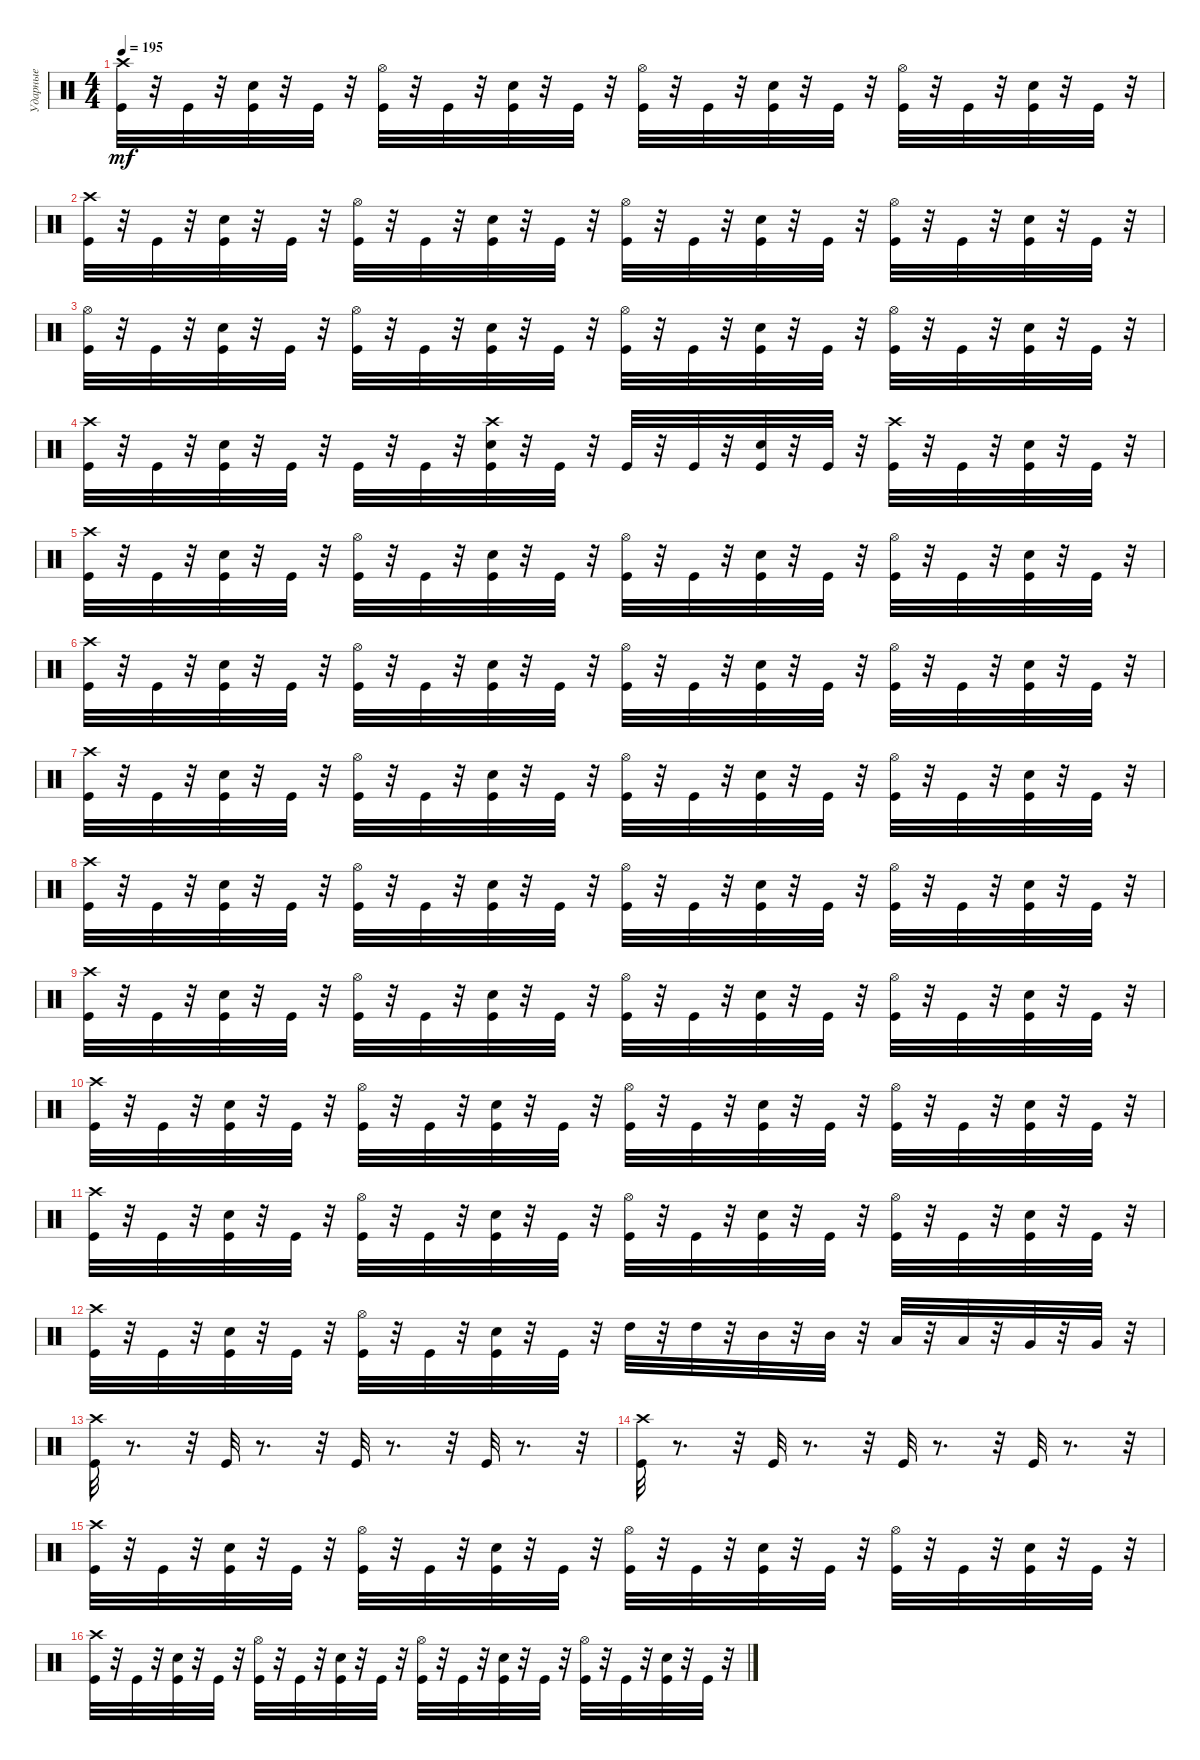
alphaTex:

\track ("Ударные" "Ударные") {instrument percussion}
\staff {score}
\articulation defaults
\ts (4 4)
\tempo 195
\clef neutral
\ks c
("Crash high (hit)" "Kick (hit)").32{dy mf} r.32 "Kick (hit)".32 r.32 ("Electric Snare (hit)" "Kick (hit)").32 r.32 "Kick (hit)".32 r.32 ("Kick (hit)" "Hi-Hat (open)").32 r.32 "Kick (hit)".32 r.32 ("Electric Snare (hit)" "Kick (hit)").32 r.32 "Kick (hit)".32 r.32 ("Hi-Hat (open)" "Kick (hit)").32 r.32 "Kick (hit)".32 r.32 ("Electric Snare (hit)" "Kick (hit)").32 r.32 "Kick (hit)".32 r.32 ("Hi-Hat (open)" "Kick (hit)").32 r.32 "Kick (hit)".32 r.32 ("Electric Snare (hit)" "Kick (hit)").32 r.32 "Kick (hit)".32 r.32 |
("Crash high (hit)" "Kick (hit)").32 r.32 "Kick (hit)".32 r.32 ("Electric Snare (hit)" "Kick (hit)").32 r.32 "Kick (hit)".32 r.32 ("Kick (hit)" "Hi-Hat (open)").32 r.32 "Kick (hit)".32 r.32 ("Electric Snare (hit)" "Kick (hit)").32 r.32 "Kick (hit)".32 r.32 ("Hi-Hat (open)" "Kick (hit)").32 r.32 "Kick (hit)".32 r.32 ("Electric Snare (hit)" "Kick (hit)").32 r.32 "Kick (hit)".32 r.32 ("Hi-Hat (open)" "Kick (hit)").32 r.32 "Kick (hit)".32 r.32 ("Electric Snare (hit)" "Kick (hit)").32 r.32 "Kick (hit)".32 r.32 |
("Hi-Hat (open)" "Kick (hit)").32 r.32 "Kick (hit)".32 r.32 ("Electric Snare (hit)" "Kick (hit)").32 r.32 "Kick (hit)".32 r.32 ("Kick (hit)" "Hi-Hat (open)").32 r.32 "Kick (hit)".32 r.32 ("Electric Snare (hit)" "Kick (hit)").32 r.32 "Kick (hit)".32 r.32 ("Hi-Hat (open)" "Kick (hit)").32 r.32 "Kick (hit)".32 r.32 ("Electric Snare (hit)" "Kick (hit)").32 r.32 "Kick (hit)".32 r.32 ("Hi-Hat (open)" "Kick (hit)").32 r.32 "Kick (hit)".32 r.32 ("Electric Snare (hit)" "Kick (hit)").32 r.32 "Kick (hit)".32 r.32 |
("Crash high (hit)" "Kick (hit)").32 r.32 "Kick (hit)".32 r.32 ("Kick (hit)" "Electric Snare (hit)").32 r.32 "Kick (hit)".32 r.32 "Kick (hit)".32 r.32 "Kick (hit)".32 r.32 ("Crash high (hit)" "Electric Snare (hit)" "Kick (hit)").32 r.32 "Kick (hit)".32 r.32 "Kick (hit)".32 r.32 "Kick (hit)".32 r.32 ("Electric Snare (hit)" "Kick (hit)").32 r.32 "Kick (hit)".32 r.32 ("Crash high (hit)" "Kick (hit)").32 r.32 "Kick (hit)".32 r.32 ("Electric Snare (hit)" "Kick (hit)").32 r.32 "Kick (hit)".32 r.32 |
("Crash high (hit)" "Kick (hit)").32 r.32 "Kick (hit)".32 r.32 ("Electric Snare (hit)" "Kick (hit)").32 r.32 "Kick (hit)".32 r.32 ("Kick (hit)" "Hi-Hat (open)").32 r.32 "Kick (hit)".32 r.32 ("Electric Snare (hit)" "Kick (hit)").32 r.32 "Kick (hit)".32 r.32 ("Hi-Hat (open)" "Kick (hit)").32 r.32 "Kick (hit)".32 r.32 ("Electric Snare (hit)" "Kick (hit)").32 r.32 "Kick (hit)".32 r.32 ("Hi-Hat (open)" "Kick (hit)").32 r.32 "Kick (hit)".32 r.32 ("Electric Snare (hit)" "Kick (hit)").32 r.32 "Kick (hit)".32 r.32 |
("Crash high (hit)" "Kick (hit)").32 r.32 "Kick (hit)".32 r.32 ("Electric Snare (hit)" "Kick (hit)").32 r.32 "Kick (hit)".32 r.32 ("Kick (hit)" "Hi-Hat (open)").32 r.32 "Kick (hit)".32 r.32 ("Electric Snare (hit)" "Kick (hit)").32 r.32 "Kick (hit)".32 r.32 ("Hi-Hat (open)" "Kick (hit)").32 r.32 "Kick (hit)".32 r.32 ("Electric Snare (hit)" "Kick (hit)").32 r.32 "Kick (hit)".32 r.32 ("Hi-Hat (open)" "Kick (hit)").32 r.32 "Kick (hit)".32 r.32 ("Electric Snare (hit)" "Kick (hit)").32 r.32 "Kick (hit)".32 r.32 |
("Crash high (hit)" "Kick (hit)").32 r.32 "Kick (hit)".32 r.32 ("Electric Snare (hit)" "Kick (hit)").32 r.32 "Kick (hit)".32 r.32 ("Kick (hit)" "Hi-Hat (open)").32 r.32 "Kick (hit)".32 r.32 ("Electric Snare (hit)" "Kick (hit)").32 r.32 "Kick (hit)".32 r.32 ("Hi-Hat (open)" "Kick (hit)").32 r.32 "Kick (hit)".32 r.32 ("Electric Snare (hit)" "Kick (hit)").32 r.32 "Kick (hit)".32 r.32 ("Hi-Hat (open)" "Kick (hit)").32 r.32 "Kick (hit)".32 r.32 ("Electric Snare (hit)" "Kick (hit)").32 r.32 "Kick (hit)".32 r.32 |
("Crash high (hit)" "Kick (hit)").32 r.32 "Kick (hit)".32 r.32 ("Electric Snare (hit)" "Kick (hit)").32 r.32 "Kick (hit)".32 r.32 ("Kick (hit)" "Hi-Hat (open)").32 r.32 "Kick (hit)".32 r.32 ("Electric Snare (hit)" "Kick (hit)").32 r.32 "Kick (hit)".32 r.32 ("Hi-Hat (open)" "Kick (hit)").32 r.32 "Kick (hit)".32 r.32 ("Electric Snare (hit)" "Kick (hit)").32 r.32 "Kick (hit)".32 r.32 ("Hi-Hat (open)" "Kick (hit)").32 r.32 "Kick (hit)".32 r.32 ("Electric Snare (hit)" "Kick (hit)").32 r.32 "Kick (hit)".32 r.32 |
("Crash high (hit)" "Kick (hit)").32 r.32 "Kick (hit)".32 r.32 ("Electric Snare (hit)" "Kick (hit)").32 r.32 "Kick (hit)".32 r.32 ("Kick (hit)" "Hi-Hat (open)").32 r.32 "Kick (hit)".32 r.32 ("Electric Snare (hit)" "Kick (hit)").32 r.32 "Kick (hit)".32 r.32 ("Hi-Hat (open)" "Kick (hit)").32 r.32 "Kick (hit)".32 r.32 ("Electric Snare (hit)" "Kick (hit)").32 r.32 "Kick (hit)".32 r.32 ("Hi-Hat (open)" "Kick (hit)").32 r.32 "Kick (hit)".32 r.32 ("Electric Snare (hit)" "Kick (hit)").32 r.32 "Kick (hit)".32 r.32 |
("Crash high (hit)" "Kick (hit)").32 r.32 "Kick (hit)".32 r.32 ("Electric Snare (hit)" "Kick (hit)").32 r.32 "Kick (hit)".32 r.32 ("Kick (hit)" "Hi-Hat (open)").32 r.32 "Kick (hit)".32 r.32 ("Electric Snare (hit)" "Kick (hit)").32 r.32 "Kick (hit)".32 r.32 ("Hi-Hat (open)" "Kick (hit)").32 r.32 "Kick (hit)".32 r.32 ("Electric Snare (hit)" "Kick (hit)").32 r.32 "Kick (hit)".32 r.32 ("Hi-Hat (open)" "Kick (hit)").32 r.32 "Kick (hit)".32 r.32 ("Electric Snare (hit)" "Kick (hit)").32 r.32 "Kick (hit)".32 r.32 |
("Crash high (hit)" "Kick (hit)").32 r.32 "Kick (hit)".32 r.32 ("Electric Snare (hit)" "Kick (hit)").32 r.32 "Kick (hit)".32 r.32 ("Kick (hit)" "Hi-Hat (open)").32 r.32 "Kick (hit)".32 r.32 ("Electric Snare (hit)" "Kick (hit)").32 r.32 "Kick (hit)".32 r.32 ("Hi-Hat (open)" "Kick (hit)").32 r.32 "Kick (hit)".32 r.32 ("Electric Snare (hit)" "Kick (hit)").32 r.32 "Kick (hit)".32 r.32 ("Hi-Hat (open)" "Kick (hit)").32 r.32 "Kick (hit)".32 r.32 ("Electric Snare (hit)" "Kick (hit)").32 r.32 "Kick (hit)".32 r.32 |
("Crash high (hit)" "Kick (hit)").32 r.32 "Kick (hit)".32 r.32 ("Electric Snare (hit)" "Kick (hit)").32 r.32 "Kick (hit)".32 r.32 ("Kick (hit)" "Hi-Hat (open)").32 r.32 "Kick (hit)".32 r.32 ("Electric Snare (hit)" "Kick (hit)").32 r.32 "Kick (hit)".32 r.32 "High Tom (hit)".32 r.32 "High Tom (hit)".32 r.32 "Mid Tom (hit)".32 r.32 "Mid Tom (hit)".32 r.32 "Low Tom (hit)".32 r.32 "Low Tom (hit)".32 r.32 "Very Low Tom (hit)".32 r.32 "Very Low Tom (hit)".32 r.32 |
("Kick (hit)" "Crash high (hit)").32 r.8{d} r.32 "Kick (hit)".32 r.8{d} r.32 "Kick (hit)".32 r.8{d} r.32 "Kick (hit)".32 r.8{d} r.32 |
("Kick (hit)" "Crash high (hit)").32 r.8{d} r.32 "Kick (hit)".32 r.8{d} r.32 "Kick (hit)".32 r.8{d} r.32 "Kick (hit)".32 r.8{d} r.32 |
("Crash high (hit)" "Kick (hit)").32 r.32 "Kick (hit)".32 r.32 ("Electric Snare (hit)" "Kick (hit)").32 r.32 "Kick (hit)".32 r.32 ("Hi-Hat (open)" "Kick (hit)").32 r.32 "Kick (hit)".32 r.32 ("Electric Snare (hit)" "Kick (hit)").32 r.32 "Kick (hit)".32 r.32 ("Hi-Hat (open)" "Kick (hit)").32 r.32 "Kick (hit)".32 r.32 ("Electric Snare (hit)" "Kick (hit)").32 r.32 "Kick (hit)".32 r.32 ("Hi-Hat (open)" "Kick (hit)").32 r.32 "Kick (hit)".32 r.32 ("Electric Snare (hit)" "Kick (hit)").32 r.32 "Kick (hit)".32 r.32 |
("Crash high (hit)" "Kick (hit)").32 r.32 "Kick (hit)".32 r.32 ("Electric Snare (hit)" "Kick (hit)").32 r.32 "Kick (hit)".32 r.32 ("Hi-Hat (open)" "Kick (hit)").32 r.32 "Kick (hit)".32 r.32 ("Electric Snare (hit)" "Kick (hit)").32 r.32 "Kick (hit)".32 r.32 ("Hi-Hat (open)" "Kick (hit)").32 r.32 "Kick (hit)".32 r.32 ("Electric Snare (hit)" "Kick (hit)").32 r.32 "Kick (hit)".32 r.32 ("Hi-Hat (open)" "Kick (hit)").32 r.32 "Kick (hit)".32 r.32 ("Electric Snare (hit)" "Kick (hit)").32 r.32 "Kick (hit)".32 r.32
